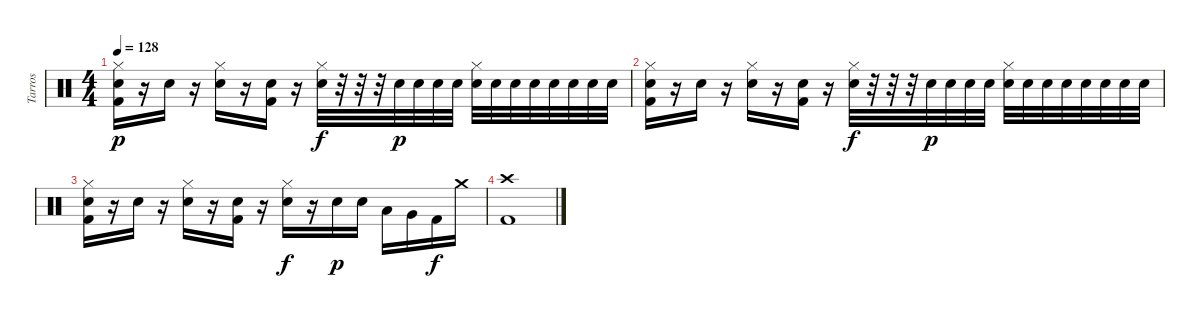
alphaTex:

\track ("Tarros" "Tarros") {instrument percussion}
\staff {score}
\articulation defaults
\ts (4 4)
\tempo 128
\clef neutral
\ks c
("Hi-Hat (closed)" "Electric Snare (hit)" "Kick (hit) 2").16{dy p} r.16 "Electric Snare (hit)".16 r.16 ("Hi-Hat (closed)" "Electric Snare (hit)").16 r.16 ("Electric Snare (hit)" "Kick (hit) 2").16 r.16 ("Hi-Hat (closed)" "Electric Snare (hit)").32{dy f} r.32 r.32 r.32 "Electric Snare (hit)".32{dy p} "Electric Snare (hit)".32 "Electric Snare (hit)".32 "Electric Snare (hit)".32 ("Hi-Hat (closed)" "Electric Snare (hit)").32 "Electric Snare (hit)".32 "Electric Snare (hit)".32 "Electric Snare (hit)".32 "Electric Snare (hit)".32 "Electric Snare (hit)".32 "Electric Snare (hit)".32 "Electric Snare (hit)".32 |
("Hi-Hat (closed)" "Electric Snare (hit)" "Kick (hit) 2").16 r.16 "Electric Snare (hit)".16 r.16 ("Hi-Hat (closed)" "Electric Snare (hit)").16 r.16 ("Electric Snare (hit)" "Kick (hit) 2").16 r.16 ("Hi-Hat (closed)" "Electric Snare (hit)").32{dy f} r.32 r.32 r.32 "Electric Snare (hit)".32{dy p} "Electric Snare (hit)".32 "Electric Snare (hit)".32 "Electric Snare (hit)".32 ("Hi-Hat (closed)" "Electric Snare (hit)").32 "Electric Snare (hit)".32 "Electric Snare (hit)".32 "Electric Snare (hit)".32 "Electric Snare (hit)".32 "Electric Snare (hit)".32 "Electric Snare (hit)".32 "Electric Snare (hit)".32 |
("Hi-Hat (closed)" "Electric Snare (hit)" "Kick (hit) 2").16 r.16 "Electric Snare (hit)".16 r.16 ("Hi-Hat (closed)" "Electric Snare (hit)").16 r.16 ("Electric Snare (hit)" "Kick (hit) 2").16 r.16 ("Hi-Hat (closed)" "Electric Snare (hit)").16{dy f} r.16 "Electric Snare (hit)".16{dy p} "Electric Snare (hit)".16 "Low Tom (hit)".16 "Very Low Tom (hit)".16 "Kick (hit) 2".16{dy f} "Crash medium (hit)".16 |
("Crash high (hit)" "Kick (hit) 2").1
